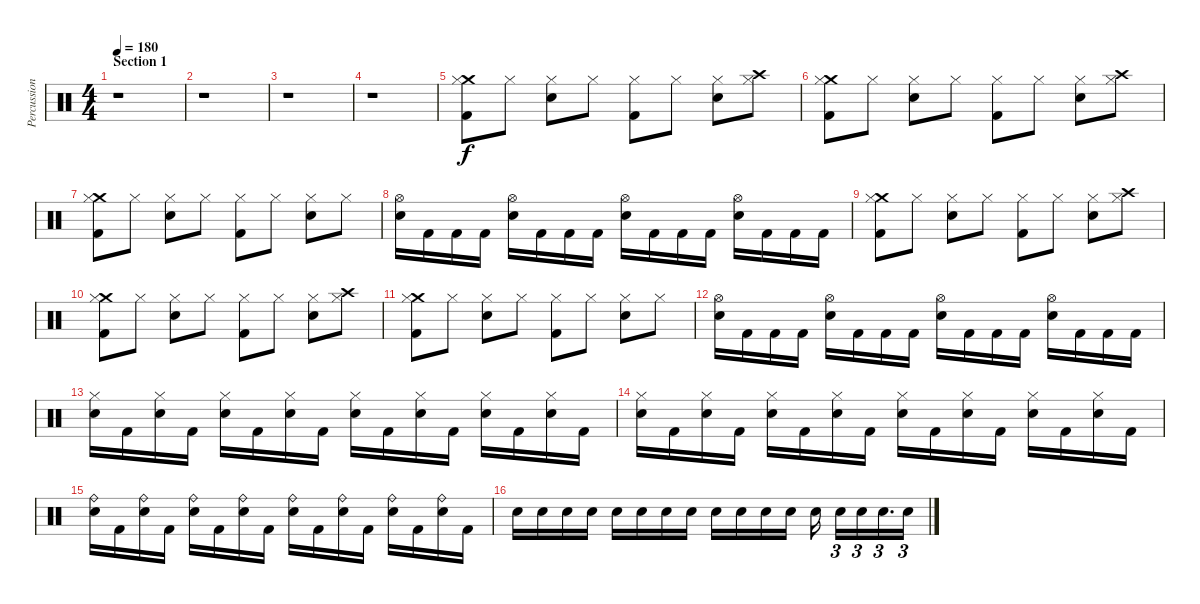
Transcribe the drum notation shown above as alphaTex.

\track ("Percussion" "Percussion") {instrument percussion}
\staff {score}
\articulation defaults
\ts (4 4)
\section ("" "Section 1")
\tempo 180
\clef neutral
\ks c
r.1{dy f} |
r.1 |
r.1 |
r.1 |
("Crash medium (hit)" "Kick (hit) 2" "Hi-Hat (closed)").8 "Hi-Hat (closed)".8 ("Snare (hit) 2" "Hi-Hat (closed)").8 "Hi-Hat (closed)".8 ("Kick (hit) 2" "Hi-Hat (closed)").8 "Hi-Hat (closed)".8 ("Snare (hit) 2" "Hi-Hat (closed)").8 ("Crash high (hit)" "Hi-Hat (closed)").8 |
("Crash medium (hit)" "Kick (hit) 2" "Hi-Hat (closed)").8 "Hi-Hat (closed)".8 ("Snare (hit) 2" "Hi-Hat (closed)").8 "Hi-Hat (closed)".8 ("Kick (hit) 2" "Hi-Hat (closed)").8 "Hi-Hat (closed)".8 ("Snare (hit) 2" "Hi-Hat (closed)").8 ("Crash high (hit)" "Hi-Hat (closed)").8 |
("Crash medium (hit)" "Kick (hit) 2" "Hi-Hat (closed)").8 "Hi-Hat (closed)".8 ("Snare (hit) 2" "Hi-Hat (closed)").8 "Hi-Hat (closed)".8 ("Kick (hit) 2" "Hi-Hat (closed)").8 "Hi-Hat (closed)".8 ("Snare (hit) 2" "Hi-Hat (closed)").8 "Hi-Hat (closed)".8 |
("Hi-Hat (open)" "Snare (hit) 2").16 "Kick (hit) 2".16 "Kick (hit) 2".16 "Kick (hit) 2".16 ("Hi-Hat (open)" "Snare (hit) 2").16 "Kick (hit) 2".16 "Kick (hit) 2".16 "Kick (hit) 2".16 ("Hi-Hat (open)" "Snare (hit) 2").16 "Kick (hit) 2".16 "Kick (hit) 2".16 "Kick (hit) 2".16 ("Hi-Hat (open)" "Snare (hit) 2").16 "Kick (hit) 2".16 "Kick (hit) 2".16 "Kick (hit) 2".16 |
("Crash medium (hit)" "Kick (hit) 2" "Hi-Hat (closed)").8 "Hi-Hat (closed)".8 ("Snare (hit) 2" "Hi-Hat (closed)").8 "Hi-Hat (closed)".8 ("Kick (hit) 2" "Hi-Hat (closed)").8 "Hi-Hat (closed)".8 ("Snare (hit) 2" "Hi-Hat (closed)").8 ("Crash high (hit)" "Hi-Hat (closed)").8 |
("Crash medium (hit)" "Kick (hit) 2" "Hi-Hat (closed)").8 "Hi-Hat (closed)".8 ("Snare (hit) 2" "Hi-Hat (closed)").8 "Hi-Hat (closed)".8 ("Kick (hit) 2" "Hi-Hat (closed)").8 "Hi-Hat (closed)".8 ("Snare (hit) 2" "Hi-Hat (closed)").8 ("Crash high (hit)" "Hi-Hat (closed)").8 |
("Crash medium (hit)" "Kick (hit) 2" "Hi-Hat (closed)").8 "Hi-Hat (closed)".8 ("Snare (hit) 2" "Hi-Hat (closed)").8 "Hi-Hat (closed)".8 ("Kick (hit) 2" "Hi-Hat (closed)").8 "Hi-Hat (closed)".8 ("Snare (hit) 2" "Hi-Hat (closed)").8 "Hi-Hat (closed)".8 |
("Hi-Hat (open)" "Snare (hit) 2").16 "Kick (hit) 2".16 "Kick (hit) 2".16 "Kick (hit) 2".16 ("Hi-Hat (open)" "Snare (hit) 2").16 "Kick (hit) 2".16 "Kick (hit) 2".16 "Kick (hit) 2".16 ("Hi-Hat (open)" "Snare (hit) 2").16 "Kick (hit) 2".16 "Kick (hit) 2".16 "Kick (hit) 2".16 ("Hi-Hat (open)" "Snare (hit) 2").16 "Kick (hit) 2".16 "Kick (hit) 2".16 "Kick (hit) 2".16 |
("Hi-Hat (closed)" "Snare (hit) 2").16 "Kick (hit) 2".16 ("Hi-Hat (closed)" "Snare (hit) 2").16 "Kick (hit) 2".16 ("Hi-Hat (closed)" "Snare (hit) 2").16 "Kick (hit) 2".16 ("Hi-Hat (closed)" "Snare (hit) 2").16 "Kick (hit) 2".16 ("Hi-Hat (closed)" "Snare (hit) 2").16 "Kick (hit) 2".16 ("Hi-Hat (closed)" "Snare (hit) 2").16 "Kick (hit) 2".16 ("Hi-Hat (closed)" "Snare (hit) 2").16 "Kick (hit) 2".16 ("Hi-Hat (closed)" "Snare (hit) 2").16 "Kick (hit) 2".16 |
("Hi-Hat (closed)" "Snare (hit) 2").16 "Kick (hit) 2".16 ("Hi-Hat (closed)" "Snare (hit) 2").16 "Kick (hit) 2".16 ("Hi-Hat (closed)" "Snare (hit) 2").16 "Kick (hit) 2".16 ("Hi-Hat (closed)" "Snare (hit) 2").16 "Kick (hit) 2".16 ("Hi-Hat (closed)" "Snare (hit) 2").16 "Kick (hit) 2".16 ("Hi-Hat (closed)" "Snare (hit) 2").16 "Kick (hit) 2".16 ("Hi-Hat (closed)" "Snare (hit) 2").16 "Kick (hit) 2".16 ("Hi-Hat (closed)" "Snare (hit) 2").16 "Kick (hit) 2".16 |
("Ride (bell)" "Snare (hit) 2").16 "Kick (hit) 2".16 ("Ride (bell)" "Snare (hit) 2").16 "Kick (hit) 2".16 ("Ride (bell)" "Snare (hit) 2").16 "Kick (hit) 2".16 ("Ride (bell)" "Snare (hit) 2").16 "Kick (hit) 2".16 ("Ride (bell)" "Snare (hit) 2").16 "Kick (hit) 2".16 ("Ride (bell)" "Snare (hit) 2").16 "Kick (hit) 2".16 ("Ride (bell)" "Snare (hit) 2").16 "Kick (hit) 2".16 ("Ride (bell)" "Snare (hit) 2").16 "Kick (hit) 2".16 |
"Snare (hit) 2".16 "Snare (hit) 2".16 "Snare (hit) 2".16 "Snare (hit) 2".16 "Snare (hit) 2".16 "Snare (hit) 2".16 "Snare (hit) 2".16 "Snare (hit) 2".16 "Snare (hit) 2".16 "Snare (hit) 2".16 "Snare (hit) 2".16 "Snare (hit) 2".16 "Snare (hit) 2".16 "Snare (hit) 2".16{tu (3 2)} "Snare (hit) 2".16{tu (3 2)} "Snare (hit) 2".16{d tu (3 2)} "Snare (hit) 2".16{tu (3 2)}
